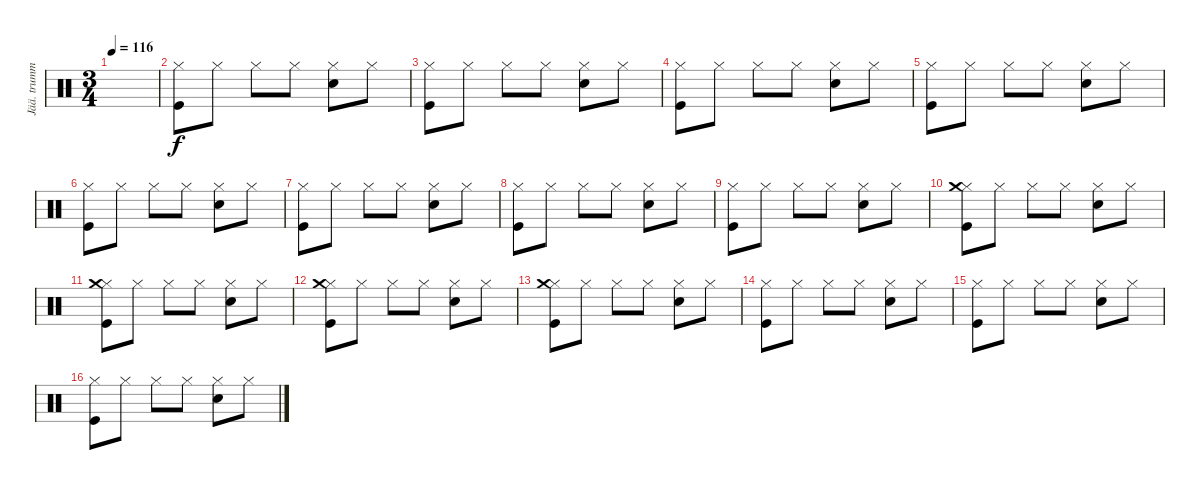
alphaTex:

\track ("Jää. trummor" "Jää. trumm") {instrument percussion}
\staff {score}
\articulation defaults
\ts (3 4)
\tempo 116
\clef neutral
\ks c
|
("Hi-Hat (closed)" "Kick (hit)").8 "Hi-Hat (closed)".8 "Hi-Hat (closed)".8 "Hi-Hat (closed)".8 ("Hi-Hat (closed)" "Electric Snare (hit)").8 "Hi-Hat (closed)".8 |
("Hi-Hat (closed)" "Kick (hit)").8 "Hi-Hat (closed)".8 "Hi-Hat (closed)".8 "Hi-Hat (closed)".8 ("Hi-Hat (closed)" "Electric Snare (hit)").8 "Hi-Hat (closed)".8 |
("Hi-Hat (closed)" "Kick (hit)").8 "Hi-Hat (closed)".8 "Hi-Hat (closed)".8 "Hi-Hat (closed)".8 ("Hi-Hat (closed)" "Electric Snare (hit)").8 "Hi-Hat (closed)".8 |
("Hi-Hat (closed)" "Kick (hit)").8 "Hi-Hat (closed)".8 "Hi-Hat (closed)".8 "Hi-Hat (closed)".8 ("Hi-Hat (closed)" "Electric Snare (hit)").8 "Hi-Hat (closed)".8 |
("Hi-Hat (closed)" "Kick (hit)").8 "Hi-Hat (closed)".8 "Hi-Hat (closed)".8 "Hi-Hat (closed)".8 ("Hi-Hat (closed)" "Electric Snare (hit)").8 "Hi-Hat (closed)".8 |
("Hi-Hat (closed)" "Kick (hit)").8 "Hi-Hat (closed)".8 "Hi-Hat (closed)".8 "Hi-Hat (closed)".8 ("Hi-Hat (closed)" "Electric Snare (hit)").8 "Hi-Hat (closed)".8 |
("Hi-Hat (closed)" "Kick (hit)").8 "Hi-Hat (closed)".8 "Hi-Hat (closed)".8 "Hi-Hat (closed)".8 ("Hi-Hat (closed)" "Electric Snare (hit)").8 "Hi-Hat (closed)".8 |
("Hi-Hat (closed)" "Kick (hit)").8 "Hi-Hat (closed)".8 "Hi-Hat (closed)".8 "Hi-Hat (closed)".8 ("Hi-Hat (closed)" "Electric Snare (hit)").8 "Hi-Hat (closed)".8 |
("Hi-Hat (closed)" "Kick (hit)" "Crash medium (hit)").8 "Hi-Hat (closed)".8 "Hi-Hat (closed)".8 "Hi-Hat (closed)".8 ("Hi-Hat (closed)" "Electric Snare (hit)").8 "Hi-Hat (closed)".8 |
("Hi-Hat (closed)" "Kick (hit)" "Crash medium (hit)").8 "Hi-Hat (closed)".8 "Hi-Hat (closed)".8 "Hi-Hat (closed)".8 ("Hi-Hat (closed)" "Electric Snare (hit)").8 "Hi-Hat (closed)".8 |
("Hi-Hat (closed)" "Kick (hit)" "Crash medium (hit)").8 "Hi-Hat (closed)".8 "Hi-Hat (closed)".8 "Hi-Hat (closed)".8 ("Hi-Hat (closed)" "Electric Snare (hit)").8 "Hi-Hat (closed)".8 |
("Hi-Hat (closed)" "Kick (hit)" "Crash medium (hit)").8 "Hi-Hat (closed)".8 "Hi-Hat (closed)".8 "Hi-Hat (closed)".8 ("Hi-Hat (closed)" "Electric Snare (hit)").8 "Hi-Hat (closed)".8 |
("Hi-Hat (closed)" "Kick (hit)").8 "Hi-Hat (closed)".8 "Hi-Hat (closed)".8 "Hi-Hat (closed)".8 ("Hi-Hat (closed)" "Electric Snare (hit)").8 "Hi-Hat (closed)".8 |
("Hi-Hat (closed)" "Kick (hit)").8 "Hi-Hat (closed)".8 "Hi-Hat (closed)".8 "Hi-Hat (closed)".8 ("Hi-Hat (closed)" "Electric Snare (hit)").8 "Hi-Hat (closed)".8 |
("Hi-Hat (closed)" "Kick (hit)").8 "Hi-Hat (closed)".8 "Hi-Hat (closed)".8 "Hi-Hat (closed)".8 ("Hi-Hat (closed)" "Electric Snare (hit)").8 "Hi-Hat (closed)".8
